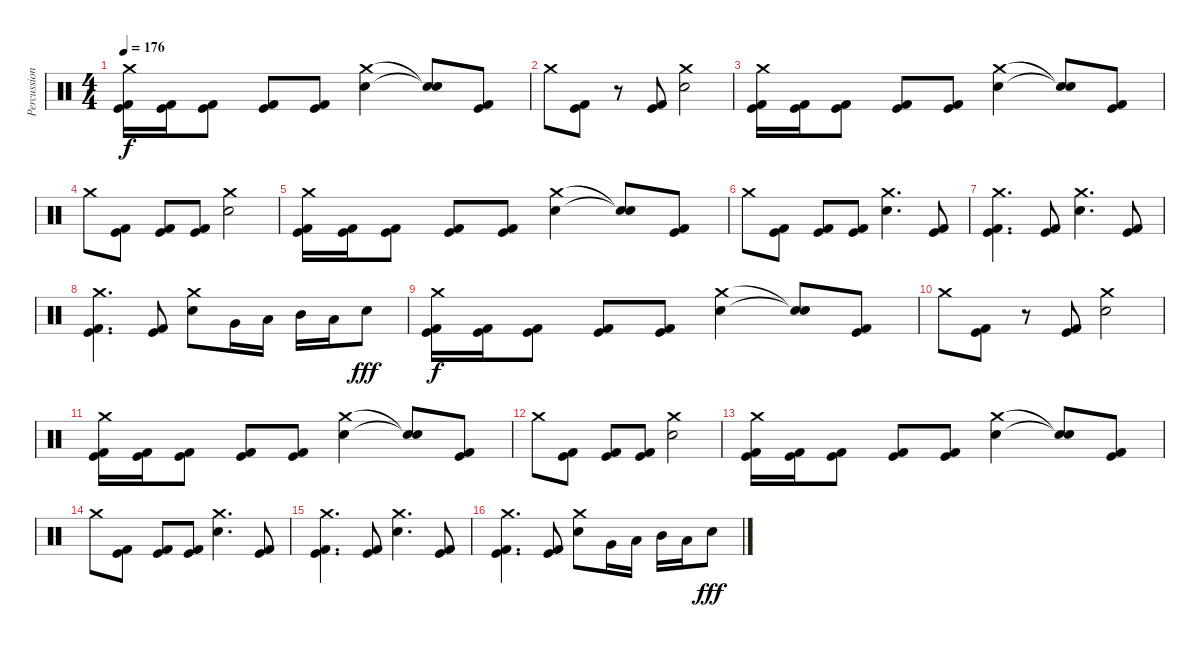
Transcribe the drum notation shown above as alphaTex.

\track ("Percussions" "Percussion") {instrument percussion}
\staff {score}
\articulation defaults
\ts (4 4)
\tempo 176
\clef neutral
\ks c
("Crash medium (hit)" "Kick (hit)" "Kick (hit) 2").16{dy f} ("Kick (hit)" "Kick (hit) 2").16 ("Kick (hit)" "Kick (hit) 2").8 ("Kick (hit)" "Kick (hit) 2").8 ("Kick (hit)" "Kick (hit) 2").8 ("Crash medium (hit)" "Electric Snare (hit)").4 ("Snare (hit)"{t} "Snare (hit)"{t}).8 ("Kick (hit)" "Kick (hit) 2").8 |
"Crash medium (hit)".8 ("Kick (hit)" "Kick (hit) 2").8 r.8 ("Kick (hit)" "Kick (hit) 2").8 ("Crash medium (hit)" "Electric Snare (hit)").2 |
("Crash medium (hit)" "Kick (hit)" "Kick (hit) 2").16 ("Kick (hit)" "Kick (hit) 2").16 ("Kick (hit)" "Kick (hit) 2").8 ("Kick (hit)" "Kick (hit) 2").8 ("Kick (hit)" "Kick (hit) 2").8 ("Crash medium (hit)" "Electric Snare (hit)").4 ("Snare (hit)"{t} "Snare (hit)"{t}).8 ("Kick (hit)" "Kick (hit) 2").8 |
"Crash medium (hit)".8 ("Kick (hit)" "Kick (hit) 2").8 ("Kick (hit)" "Kick (hit) 2").8 ("Kick (hit)" "Kick (hit) 2").8 ("Crash medium (hit)" "Electric Snare (hit)").2 |
("Crash medium (hit)" "Kick (hit)" "Kick (hit) 2").16 ("Kick (hit)" "Kick (hit) 2").16 ("Kick (hit)" "Kick (hit) 2").8 ("Kick (hit)" "Kick (hit) 2").8 ("Kick (hit)" "Kick (hit) 2").8 ("Crash medium (hit)" "Electric Snare (hit)").4 ("Snare (hit)"{t} "Snare (hit)"{t}).8 ("Kick (hit)" "Kick (hit) 2").8 |
"Crash medium (hit)".8 ("Kick (hit)" "Kick (hit) 2").8 ("Kick (hit)" "Kick (hit) 2").8 ("Kick (hit)" "Kick (hit) 2").8 ("Crash medium (hit)" "Electric Snare (hit)").4{d} ("Kick (hit)" "Kick (hit) 2").8 |
("Crash medium (hit)" "Kick (hit)" "Kick (hit) 2").4{d} ("Kick (hit)" "Kick (hit) 2").8 ("Crash medium (hit)" "Electric Snare (hit)").4{d} ("Kick (hit)" "Kick (hit) 2").8 |
("Crash medium (hit)" "Kick (hit)" "Kick (hit) 2").4{d} ("Kick (hit)" "Kick (hit) 2").8 ("Crash medium (hit)" "Electric Snare (hit)").8 "Very Low Tom (hit)".16 "Low Tom (hit)".16 "Mid Tom (hit)".16 "Low Tom (hit)".16 "Electric Snare (hit)".8{dy fff} |
("Crash medium (hit)" "Kick (hit)" "Kick (hit) 2").16{dy f} ("Kick (hit)" "Kick (hit) 2").16 ("Kick (hit)" "Kick (hit) 2").8 ("Kick (hit)" "Kick (hit) 2").8 ("Kick (hit)" "Kick (hit) 2").8 ("Crash medium (hit)" "Electric Snare (hit)").4 ("Snare (hit)"{t} "Snare (hit)"{t}).8 ("Kick (hit)" "Kick (hit) 2").8 |
"Crash medium (hit)".8 ("Kick (hit)" "Kick (hit) 2").8 r.8 ("Kick (hit)" "Kick (hit) 2").8 ("Crash medium (hit)" "Electric Snare (hit)").2 |
("Crash medium (hit)" "Kick (hit)" "Kick (hit) 2").16 ("Kick (hit)" "Kick (hit) 2").16 ("Kick (hit)" "Kick (hit) 2").8 ("Kick (hit)" "Kick (hit) 2").8 ("Kick (hit)" "Kick (hit) 2").8 ("Crash medium (hit)" "Electric Snare (hit)").4 ("Snare (hit)"{t} "Snare (hit)"{t}).8 ("Kick (hit)" "Kick (hit) 2").8 |
"Crash medium (hit)".8 ("Kick (hit)" "Kick (hit) 2").8 ("Kick (hit)" "Kick (hit) 2").8 ("Kick (hit)" "Kick (hit) 2").8 ("Crash medium (hit)" "Electric Snare (hit)").2 |
("Crash medium (hit)" "Kick (hit)" "Kick (hit) 2").16 ("Kick (hit)" "Kick (hit) 2").16 ("Kick (hit)" "Kick (hit) 2").8 ("Kick (hit)" "Kick (hit) 2").8 ("Kick (hit)" "Kick (hit) 2").8 ("Crash medium (hit)" "Electric Snare (hit)").4 ("Snare (hit)"{t} "Snare (hit)"{t}).8 ("Kick (hit)" "Kick (hit) 2").8 |
"Crash medium (hit)".8 ("Kick (hit)" "Kick (hit) 2").8 ("Kick (hit)" "Kick (hit) 2").8 ("Kick (hit)" "Kick (hit) 2").8 ("Crash medium (hit)" "Electric Snare (hit)").4{d} ("Kick (hit)" "Kick (hit) 2").8 |
("Crash medium (hit)" "Kick (hit)" "Kick (hit) 2").4{d} ("Kick (hit)" "Kick (hit) 2").8 ("Crash medium (hit)" "Electric Snare (hit)").4{d} ("Kick (hit)" "Kick (hit) 2").8 |
("Crash medium (hit)" "Kick (hit)" "Kick (hit) 2").4{d} ("Kick (hit)" "Kick (hit) 2").8 ("Crash medium (hit)" "Electric Snare (hit)").8 "Very Low Tom (hit)".16 "Low Tom (hit)".16 "Mid Tom (hit)".16 "Low Tom (hit)".16 "Electric Snare (hit)".8{dy fff}
